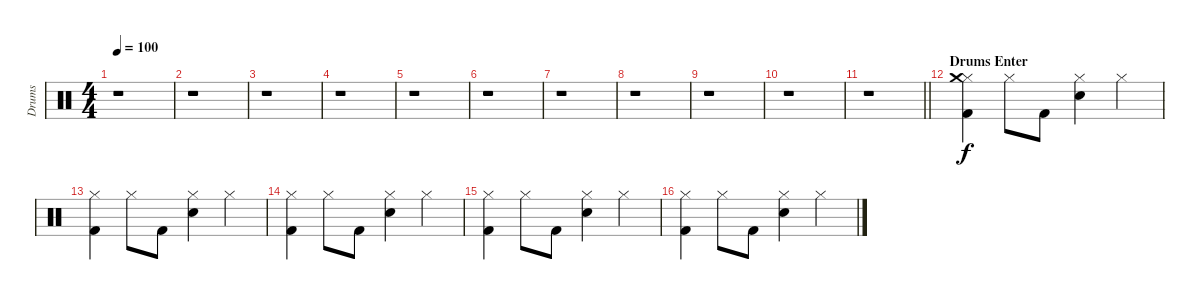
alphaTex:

\track ("Drums" "Drums") {instrument percussion}
\staff {score}
\articulation defaults
\ts (4 4)
\tempo 100
\clef neutral
\ks c
r.1{dy f} |
r.1 |
r.1 |
r.1 |
r.1 |
r.1 |
r.1 |
r.1 |
r.1 |
r.1 |
\barLineRight lightlight
r.1 |
\section ("" "Drums Enter")
("Hi-Hat (closed)" "Crash medium (hit)" "Kick (hit) 2").4 "Hi-Hat (closed)".8 "Kick (hit) 2".8 ("Hi-Hat (closed)" "Electric Snare (hit)").4 "Hi-Hat (closed)".4 |
("Hi-Hat (closed)" "Kick (hit) 2").4 "Hi-Hat (closed)".8 "Kick (hit) 2".8 ("Hi-Hat (closed)" "Electric Snare (hit)").4 "Hi-Hat (closed)".4 |
("Hi-Hat (closed)" "Kick (hit) 2").4 "Hi-Hat (closed)".8 "Kick (hit) 2".8 ("Hi-Hat (closed)" "Electric Snare (hit)").4 "Hi-Hat (closed)".4 |
("Hi-Hat (closed)" "Kick (hit) 2").4 "Hi-Hat (closed)".8 "Kick (hit) 2".8 ("Hi-Hat (closed)" "Electric Snare (hit)").4 "Hi-Hat (closed)".4 |
("Hi-Hat (closed)" "Kick (hit) 2").4 "Hi-Hat (closed)".8 "Kick (hit) 2".8 ("Hi-Hat (closed)" "Electric Snare (hit)").4 "Hi-Hat (closed)".4
